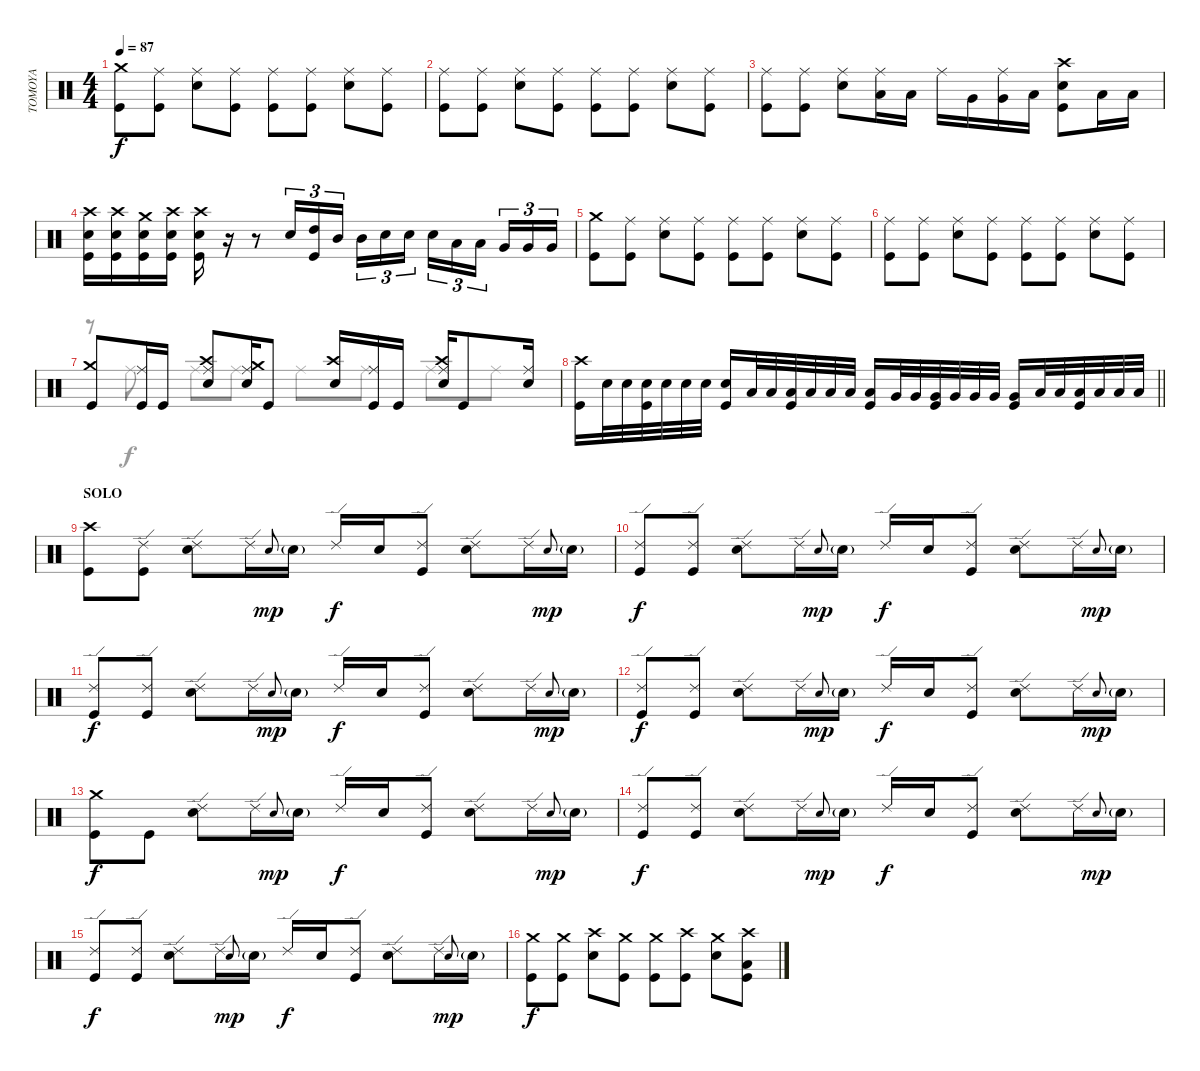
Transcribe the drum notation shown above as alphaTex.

\track ("TOMOYA" "TOMOYA") {instrument percussion}
\staff {score}
\articulation defaults
\voice
\ts (4 4)
\tempo 87
\clef neutral
\ks c
("Kick (hit)" "Crash medium (hit)").8{dy f} ("Kick (hit)" "Ride (middle)").8 ("Ride (middle)" "Snare (hit) 2").8 ("Kick (hit)" "Ride (middle)").8 ("Kick (hit)" "Ride (middle)").8 ("Kick (hit)" "Ride (middle)").8 ("Ride (middle)" "Snare (hit) 2").8 ("Kick (hit)" "Ride (middle)").8 |
("Kick (hit)" "Ride (middle)").8 ("Kick (hit)" "Ride (middle)").8 ("Ride (middle)" "Snare (hit) 2").8 ("Kick (hit)" "Ride (middle)").8 ("Kick (hit)" "Ride (middle)").8 ("Kick (hit)" "Ride (middle)").8 ("Ride (middle)" "Snare (hit) 2").8 ("Kick (hit)" "Ride (middle)").8 |
("Kick (hit)" "Ride (middle)").8 ("Kick (hit)" "Ride (middle)").8 ("Ride (middle)" "Snare (hit) 2").8 ("Low Tom (hit)" "Ride (middle)").16 "Low Tom (hit)".16 "Ride (middle)".16 "Very Low Tom (hit)".16 ("Very Low Tom (hit)" "Ride (middle)").16 "Low Floor Tom (hit)".16 ("Kick (hit)" "Snare (hit) 2" "Crash high (hit)").8 "Low Floor Tom (hit)".16 "Low Floor Tom (hit)".16 |
("Kick (hit)" "Snare (hit) 2" "Crash high (hit)").16 ("Kick (hit)" "Snare (hit) 2" "Crash high (hit)").16 ("Kick (hit)" "Snare (hit) 2" "Crash medium (hit)").16 ("Kick (hit)" "Snare (hit) 2" "Crash high (hit)").16 ("Kick (hit)" "Snare (hit) 2" "Crash high (hit)").16 r.16 r.8 "Snare (hit) 2".16{tu (3 2)} ("Kick (hit)" "High Tom (hit)").16{tu (3 2)} "Mid Tom (hit)".16{tu (3 2) beam splitsecondary} "Mid Tom (hit)".16{tu (3 2)} "Snare (hit) 2".16{tu (3 2)} "Snare (hit) 2".16{tu (3 2)} "Snare (hit) 2".16{tu (3 2)} "Low Tom (hit)".16{tu (3 2)} "Low Tom (hit)".16{tu (3 2) beam splitsecondary} "Very Low Tom (hit)".16{tu (3 2)} "Very Low Tom (hit)".16{tu (3 2)} "Very Low Tom (hit)".16{tu (3 2)} |
("Kick (hit)" "Crash medium (hit)").8 ("Kick (hit)" "Ride (middle)").8 ("Ride (middle)" "Snare (hit) 2").8 ("Kick (hit)" "Ride (middle)").8 ("Kick (hit)" "Ride (middle)").8 ("Kick (hit)" "Ride (middle)").8 ("Ride (middle)" "Snare (hit) 2").8 ("Kick (hit)" "Ride (middle)").8 |
("Kick (hit)" "Ride (middle)").8 ("Kick (hit)" "Ride (middle)").8 ("Ride (middle)" "Snare (hit) 2").8 ("Kick (hit)" "Ride (middle)").8 ("Kick (hit)" "Ride (middle)").8 ("Kick (hit)" "Ride (middle)").8 ("Ride (middle)" "Snare (hit) 2").8 ("Kick (hit)" "Ride (middle)").8 |
("Kick (hit)" "Crash medium (hit)").8 ("Kick (hit)" "Ride (middle)").16 "Kick (hit)".16 ("Snare (hit) 2" "Ride (middle)" "Crash high (hit)").8 ("Snare (hit) 2" "Ride (middle)" "Crash medium (hit)").16 "Kick (hit)".8 ("Snare (hit) 2" "Crash high (hit)").16 ("Kick (hit)" "Ride (middle)").16 "Kick (hit)".16 ("Snare (hit) 2" "Ride (middle)" "Crash high (hit)").16 "Kick (hit)".8 ("Snare (hit) 2" "Ride (middle)").16 |
\barLineRight lightlight
("Kick (hit)" "Crash high (hit)").16 "Snare (hit) 2".32 "Snare (hit) 2".32 ("Kick (hit)" "Snare (hit) 2").32 "Snare (hit) 2".32 "Snare (hit) 2".32 "Snare (hit) 2".32 ("Kick (hit)" "Snare (hit) 2").16 "Low Tom (hit)".32 "Low Tom (hit)".32 ("Kick (hit)" "Low Tom (hit)").32 "Low Tom (hit)".32 "Low Tom (hit)".32 "Low Tom (hit)".32 ("Kick (hit)" "Low Tom (hit)").16 "Very Low Tom (hit)".32 "Very Low Tom (hit)".32 ("Kick (hit)" "Very Low Tom (hit)").32 "Very Low Tom (hit)".32 "Very Low Tom (hit)".32 "Very Low Tom (hit)".32 ("Kick (hit)" "Very Low Tom (hit)").16 "Low Floor Tom (hit)".32 "Low Floor Tom (hit)".32 ("Kick (hit)" "Low Floor Tom (hit)").32 "Low Floor Tom (hit)".32 "Low Floor Tom (hit)".32 "Low Floor Tom (hit)".32 |
\section ("" "SOLO")
("Kick (hit)" "Crash high (hit)").8 ("Kick (hit)" "Ride (edge) 2").8 ("Snare (hit) 2" "Ride (edge) 2").8 "Ride (edge) 2".16 "Snare (hit) 2".8{gr onbeat dy mp} "Snare (hit) 2"{g}.16 "Ride (edge) 2".16{dy f} "Snare (hit) 2".16 ("Kick (hit)" "Ride (edge) 2").8 ("Snare (hit) 2" "Ride (edge) 2").8 "Ride (edge) 2".16 "Snare (hit) 2".8{gr onbeat dy mp} "Snare (hit) 2"{g}.16 |
("Kick (hit)" "Ride (edge) 2").8{dy f} ("Kick (hit)" "Ride (edge) 2").8 ("Snare (hit) 2" "Ride (edge) 2").8 "Ride (edge) 2".16 "Snare (hit) 2".8{gr onbeat dy mp} "Snare (hit) 2"{g}.16 "Ride (edge) 2".16{dy f} "Snare (hit) 2".16 ("Kick (hit)" "Ride (edge) 2").8 ("Snare (hit) 2" "Ride (edge) 2").8 "Ride (edge) 2".16 "Snare (hit) 2".8{gr onbeat dy mp} "Snare (hit) 2"{g}.16 |
("Kick (hit)" "Ride (edge) 2").8{dy f} ("Kick (hit)" "Ride (edge) 2").8 ("Snare (hit) 2" "Ride (edge) 2").8 "Ride (edge) 2".16 "Snare (hit) 2".8{gr onbeat dy mp} "Snare (hit) 2"{g}.16 "Ride (edge) 2".16{dy f} "Snare (hit) 2".16 ("Kick (hit)" "Ride (edge) 2").8 ("Snare (hit) 2" "Ride (edge) 2").8 "Ride (edge) 2".16 "Snare (hit) 2".8{gr onbeat dy mp} "Snare (hit) 2"{g}.16 |
("Kick (hit)" "Ride (edge) 2").8{dy f} ("Kick (hit)" "Ride (edge) 2").8 ("Snare (hit) 2" "Ride (edge) 2").8 "Ride (edge) 2".16 "Snare (hit) 2".8{gr onbeat dy mp} "Snare (hit) 2"{g}.16 "Ride (edge) 2".16{dy f} "Snare (hit) 2".16 ("Kick (hit)" "Ride (edge) 2").8 ("Snare (hit) 2" "Ride (edge) 2").8 "Ride (edge) 2".16 "Snare (hit) 2".8{gr onbeat dy mp} "Snare (hit) 2"{g}.16 |
("Kick (hit)" "Crash medium (hit)").8{dy f} "Kick (hit)".8 ("Snare (hit) 2" "Ride (edge) 2").8 "Ride (edge) 2".16 "Snare (hit) 2".8{gr onbeat dy mp} "Snare (hit) 2"{g}.16 "Ride (edge) 2".16{dy f} "Snare (hit) 2".16 ("Kick (hit)" "Ride (edge) 2").8 ("Snare (hit) 2" "Ride (edge) 2").8 "Ride (edge) 2".16 "Snare (hit) 2".8{gr onbeat dy mp} "Snare (hit) 2"{g}.16 |
("Kick (hit)" "Ride (edge) 2").8{dy f} ("Kick (hit)" "Ride (edge) 2").8 ("Snare (hit) 2" "Ride (edge) 2").8 "Ride (edge) 2".16 "Snare (hit) 2".8{gr onbeat dy mp} "Snare (hit) 2"{g}.16 "Ride (edge) 2".16{dy f} "Snare (hit) 2".16 ("Kick (hit)" "Ride (edge) 2").8 ("Snare (hit) 2" "Ride (edge) 2").8 "Ride (edge) 2".16 "Snare (hit) 2".8{gr onbeat dy mp} "Snare (hit) 2"{g}.16 |
("Kick (hit)" "Ride (edge) 2").8{dy f} ("Kick (hit)" "Ride (edge) 2").8 ("Snare (hit) 2" "Ride (edge) 2").8 "Ride (edge) 2".16 "Snare (hit) 2".8{gr onbeat dy mp} "Snare (hit) 2"{g}.16 "Ride (edge) 2".16{dy f} "Snare (hit) 2".16 ("Kick (hit)" "Ride (edge) 2").8 ("Snare (hit) 2" "Ride (edge) 2").8 "Ride (edge) 2".16 "Snare (hit) 2".8{gr onbeat dy mp} "Snare (hit) 2"{g}.16 |
("Kick (hit)" "Crash medium (hit)").8{dy f} ("Kick (hit)" "Crash medium (hit)").8 ("Snare (hit) 2" "Crash high (hit)").8 ("Kick (hit)" "Crash medium (hit)").8 ("Kick (hit)" "Crash medium (hit)").8 ("Kick (hit)" "Crash high (hit)").8 ("Snare (hit) 2" "Crash medium (hit)").8 ("Kick (hit)" "Low Floor Tom (hit)" "Crash high (hit)").8
\voice
\clef neutral
\ottava regular
\simile none
\ks c
|
|
|
|
|
|
r.8 "Ride (middle)".8 "Ride (middle)".8 "Ride (middle)".8 "Ride (middle)".8 "Ride (middle)".8 "Ride (middle)".8 "Ride (middle)".8 |
\barLineRight lightlight
|
|
|
|
|
|
|
|
